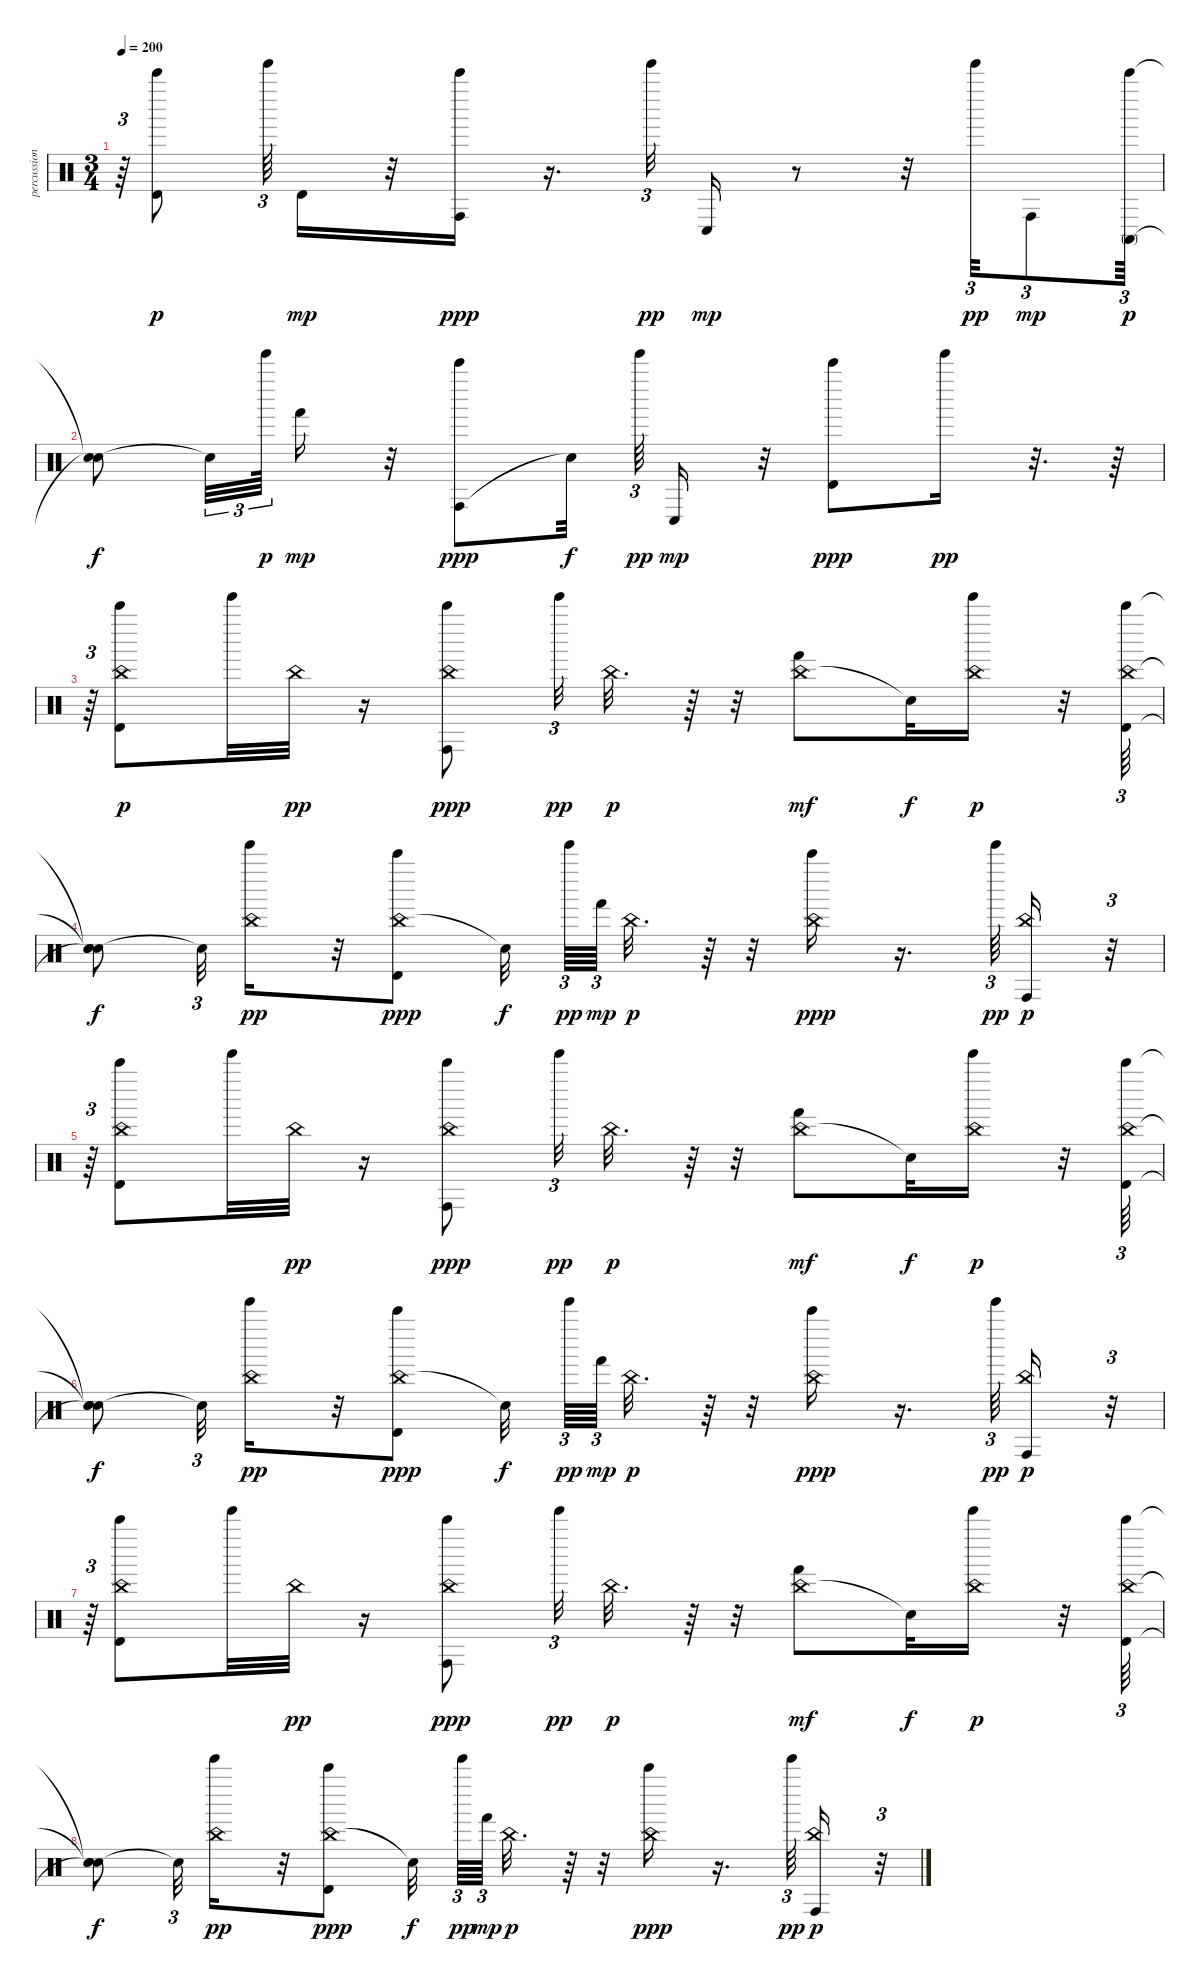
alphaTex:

\track ("percussion" "percussion") {instrument percussion}
\staff {score}
\articulation defaults
\ts (3 4)
\tempo 200
\clef neutral
\ks c
r.64{tu (3 2) dy pp} ("Timbale high (hit)" "Bell Tree (hit)").8{dy p} "Tinkle Bell (hit)".64{tu (3 2)} "Timbale high (hit)".16{dy mp} r.32 ("Conga high (hit)" "Bell Tree (hit)").16{dy ppp} r.16{d} "Tinkle Bell (hit)".32{tu (3 2) dy pp} "Conga low (hit)".16{dy mp} r.8 r.32 "Tinkle Bell (hit)".32{tu (3 2) dy pp} "Conga high (hit)".8{tu (3 2) dy mp} ("Conga high (mute)" "Bell Tree (hit)").64{tu (3 2) dy p} |
("Snare (hit)"{t} "Snare (hit)"{t}).8{dy f} "Snare (hit)"{t}.32{tu (3 2)} "Tinkle Bell (hit)".64{tu (3 2) dy p} "Hand (hit)".16{dy mp} r.32 ("Conga high (hit)" "Bell Tree (hit)").8{dy ppp} "Snare (hit)"{t}.32{dy f} "Tinkle Bell (hit)".64{tu (3 2) dy pp} "Conga low (hit)".16{dy mp} r.32 ("Timbale high (hit)" "Bell Tree (hit)").8{dy ppp} "Tinkle Bell (hit)".16{dy pp} r.32{d} r.64 |
r.64{tu (3 2)} ("China (hit)" "Timbale high (hit)" "Bell Tree (hit)").8{dy p} "Tinkle Bell (hit)".32 "China (hit)".32{dy pp} r.16 ("China (hit)" "Conga high (hit)" "Bell Tree (hit)").8{dy ppp} "Tinkle Bell (hit)".32{tu (3 2) dy pp} "China (hit)".32{d dy p} r.64 r.32 ("China (hit)" "Hand (hit)").8{dy mf} "Snare (hit)"{t}.32{dy f} ("Tinkle Bell (hit)" "China (hit)").16{dy p} r.32 ("China (hit)" "Timbale high (hit)" "Bell Tree (hit)").64{tu (3 2)} |
("Snare (hit)"{t} "Snare (hit)"{t} "Snare (hit)"{t}).8{dy f} "Snare (hit)"{t}.32{tu (3 2)} ("Tinkle Bell (hit)" "China (hit)").16{dy pp} r.32 ("China (hit)" "Timbale high (hit)" "Bell Tree (hit)").8{dy ppp} "Snare (hit)"{t}.32{dy f} "Tinkle Bell (hit)".64{tu (3 2) dy pp} "Hand (hit)".64{tu (3 2) dy mp} "China (hit)".32{d dy p} r.64 r.32 ("China (hit)" "Bell Tree (hit)").16{dy ppp} r.16{d} "Tinkle Bell (hit)".64{tu (3 2) dy pp} ("Conga high (hit)" "China (hit)").16{dy p} r.32{tu (3 2)} |
r.64{tu (3 2)} ("China (hit)" "Timbale high (hit)" "Bell Tree (hit)").8 "Tinkle Bell (hit)".32 "China (hit)".32{dy pp} r.16 ("China (hit)" "Conga high (hit)" "Bell Tree (hit)").8{dy ppp} "Tinkle Bell (hit)".32{tu (3 2) dy pp} "China (hit)".32{d dy p} r.64 r.32 ("China (hit)" "Hand (hit)").8{dy mf} "Snare (hit)"{t}.32{dy f} ("Tinkle Bell (hit)" "China (hit)").16{dy p} r.32 ("China (hit)" "Timbale high (hit)" "Bell Tree (hit)").64{tu (3 2)} |
("Snare (hit)"{t} "Snare (hit)"{t} "Snare (hit)"{t}).8{dy f} "Snare (hit)"{t}.32{tu (3 2)} ("Tinkle Bell (hit)" "China (hit)").16{dy pp} r.32 ("China (hit)" "Timbale high (hit)" "Bell Tree (hit)").8{dy ppp} "Snare (hit)"{t}.32{dy f} "Tinkle Bell (hit)".64{tu (3 2) dy pp} "Hand (hit)".64{tu (3 2) dy mp} "China (hit)".32{d dy p} r.64 r.32 ("China (hit)" "Bell Tree (hit)").16{dy ppp} r.16{d} "Tinkle Bell (hit)".64{tu (3 2) dy pp} ("Conga high (hit)" "China (hit)").16{dy p} r.32{tu (3 2)} |
r.64{tu (3 2)} ("China (hit)" "Timbale high (hit)" "Bell Tree (hit)").8 "Tinkle Bell (hit)".32 "China (hit)".32{dy pp} r.16 ("China (hit)" "Conga high (hit)" "Bell Tree (hit)").8{dy ppp} "Tinkle Bell (hit)".32{tu (3 2) dy pp} "China (hit)".32{d dy p} r.64 r.32 ("China (hit)" "Hand (hit)").8{dy mf} "Snare (hit)"{t}.32{dy f} ("Tinkle Bell (hit)" "China (hit)").16{dy p} r.32 ("China (hit)" "Timbale high (hit)" "Bell Tree (hit)").64{tu (3 2)} |
("Snare (hit)"{t} "Snare (hit)"{t} "Snare (hit)"{t}).8{dy f} "Snare (hit)"{t}.32{tu (3 2)} ("Tinkle Bell (hit)" "China (hit)").16{dy pp} r.32 ("China (hit)" "Timbale high (hit)" "Bell Tree (hit)").8{dy ppp} "Snare (hit)"{t}.32{dy f} "Tinkle Bell (hit)".64{tu (3 2) dy pp} "Hand (hit)".64{tu (3 2) dy mp} "China (hit)".32{d dy p} r.64 r.32 ("China (hit)" "Bell Tree (hit)").16{dy ppp} r.16{d} "Tinkle Bell (hit)".64{tu (3 2) dy pp} ("Conga high (hit)" "China (hit)").16{dy p} r.32{tu (3 2)}
